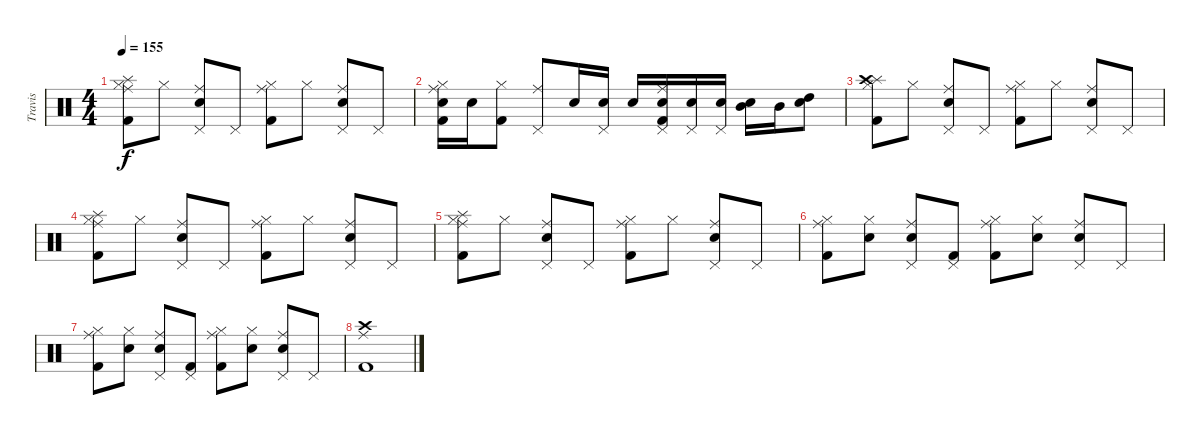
\track ("Travis" "Travis") {instrument percussion}
\staff {score}
\articulation defaults
\ts (4 4)
\tempo 155
\clef neutral
\ks c
("Splash (hit)" "Hi-Hat (closed)" "Kick (hit) 2" "Ride (middle)").8{dy f} "Hi-Hat (closed)".8 ("Electric Snare (hit)" "Pedal Hi-Hat (hit)" "Ride (middle)").8 "Pedal Hi-Hat (hit)".8 ("Hi-Hat (closed)" "Kick (hit) 2" "Ride (middle)").8 "Hi-Hat (closed)".8 ("Electric Snare (hit)" "Pedal Hi-Hat (hit)" "Ride (middle)").8 "Pedal Hi-Hat (hit)".8 |
("Electric Snare (hit)" "Hi-Hat (closed)" "Kick (hit) 2" "Ride (middle)").16 "Electric Snare (hit)".16 ("Hi-Hat (closed)" "Kick (hit) 2").8 ("Pedal Hi-Hat (hit)" "Ride (middle)").8 "Electric Snare (hit)".16 ("Electric Snare (hit)" "Pedal Hi-Hat (hit)").16 "Electric Snare (hit)".16 ("Electric Snare (hit)" "Pedal Hi-Hat (hit)" "Kick (hit) 2" "Ride (middle)").16 ("Snare (hit) 2" "Pedal Hi-Hat (hit)").16 ("Snare (hit) 2" "Pedal Hi-Hat (hit)").16 ("Electric Snare (hit)" "Mid Tom (hit)").16 "Mid Tom (hit)".16 ("Electric Snare (hit)" "High Tom (hit)").8 |
("Splash (hit)" "Hi-Hat (closed)" "Kick (hit) 2" "Crash high (hit)").8 "Hi-Hat (closed)".8 ("Electric Snare (hit)" "Pedal Hi-Hat (hit)" "Ride (middle)").8 "Pedal Hi-Hat (hit)".8 ("Hi-Hat (closed)" "Kick (hit) 2" "Ride (middle)").8 "Hi-Hat (closed)".8 ("Electric Snare (hit)" "Pedal Hi-Hat (hit)" "Ride (middle)").8 "Pedal Hi-Hat (hit)".8 |
("Splash (hit)" "Hi-Hat (closed)" "Kick (hit) 2" "Ride (middle)").8 "Hi-Hat (closed)".8 ("Electric Snare (hit)" "Pedal Hi-Hat (hit)" "Ride (middle)").8 "Pedal Hi-Hat (hit)".8 ("Hi-Hat (closed)" "Kick (hit) 2" "Ride (middle)").8 "Hi-Hat (closed)".8 ("Electric Snare (hit)" "Pedal Hi-Hat (hit)" "Ride (middle)").8 "Pedal Hi-Hat (hit)".8 |
("Splash (hit)" "Hi-Hat (closed)" "Kick (hit) 2" "Ride (middle)").8 "Hi-Hat (closed)".8 ("Electric Snare (hit)" "Pedal Hi-Hat (hit)" "Ride (middle)").8 "Pedal Hi-Hat (hit)".8 ("Hi-Hat (closed)" "Kick (hit) 2" "Ride (middle)").8 "Hi-Hat (closed)".8 ("Electric Snare (hit)" "Pedal Hi-Hat (hit)" "Ride (middle)").8 "Pedal Hi-Hat (hit)".8 |
("Hi-Hat (closed)" "Kick (hit) 2" "Ride (middle)").8 ("Electric Snare (hit)" "Hi-Hat (closed)").8 ("Electric Snare (hit)" "Pedal Hi-Hat (hit)" "Ride (middle)").8 ("Pedal Hi-Hat (hit)" "Kick (hit) 2").8 ("Hi-Hat (closed)" "Kick (hit) 2" "Ride (middle)").8 ("Electric Snare (hit)" "Hi-Hat (closed)").8 ("Electric Snare (hit)" "Pedal Hi-Hat (hit)" "Ride (middle)").8 "Pedal Hi-Hat (hit)".8 |
("Hi-Hat (closed)" "Kick (hit) 2" "Ride (middle)").8 ("Electric Snare (hit)" "Hi-Hat (closed)").8 ("Electric Snare (hit)" "Pedal Hi-Hat (hit)" "Ride (middle)").8 ("Pedal Hi-Hat (hit)" "Kick (hit) 2").8 ("Hi-Hat (closed)" "Kick (hit) 2" "Ride (middle)").8 ("Electric Snare (hit)" "Hi-Hat (closed)").8 ("Electric Snare (hit)" "Pedal Hi-Hat (hit)" "Ride (middle)").8 "Pedal Hi-Hat (hit)".8 |
("Ride (middle)" "Crash high (hit)" "Kick (hit) 2").1
